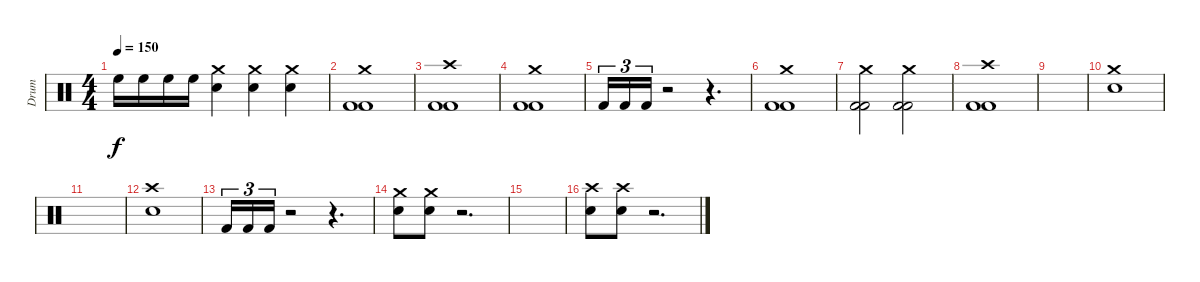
\track ("Drum" "Drum") {instrument percussion}
\staff {score}
\articulation defaults
\ts (4 4)
\tempo 150
\clef neutral
\ks c "High Floor Tom (hit)".16{dy f} "High Floor Tom (hit)".16 "High Floor Tom (hit)".16 "High Floor Tom (hit)".16
("Electric Snare (hit)" "Crash medium (hit)").4 ("Electric Snare (hit)" "Crash medium (hit)").4 ("Electric Snare (hit)" "Crash medium (hit)").4 |
("Crash medium (hit)" "Kick (hit) 2" "Kick (hit) 2").1 |
("Crash high (hit)" "Kick (hit) 2" "Kick (hit) 2").1 |
("Crash medium (hit)" "Kick (hit) 2" "Kick (hit) 2").1 |
"Kick (hit) 2".16{tu (3 2)} "Kick (hit) 2".16{tu (3 2)} "Kick (hit) 2".16{tu (3 2)} r.2 r.4{d} |
("Crash medium (hit)" "Kick (hit) 2" "Kick (hit) 2").1 |
("Crash medium (hit)" "Kick (hit) 2" "Kick (hit) 2").2 ("Crash medium (hit)" "Kick (hit) 2" "Kick (hit) 2").2 |
("Crash high (hit)" "Kick (hit) 2" "Kick (hit) 2").1 |
|
("Crash medium (hit)" "Electric Snare (hit)").1 |
|
("Crash high (hit)" "Electric Snare (hit)").1 |
"Kick (hit) 2".16{tu (3 2)} "Kick (hit) 2".16{tu (3 2)} "Kick (hit) 2".16{tu (3 2)} r.2 r.4{d} |
("Crash medium (hit)" "Electric Snare (hit)").8 ("Crash medium (hit)" "Electric Snare (hit)").8 r.2{d} |
|
("Crash high (hit)" "Electric Snare (hit)").8 ("Crash high (hit)" "Electric Snare (hit)").8 r.2{d}
